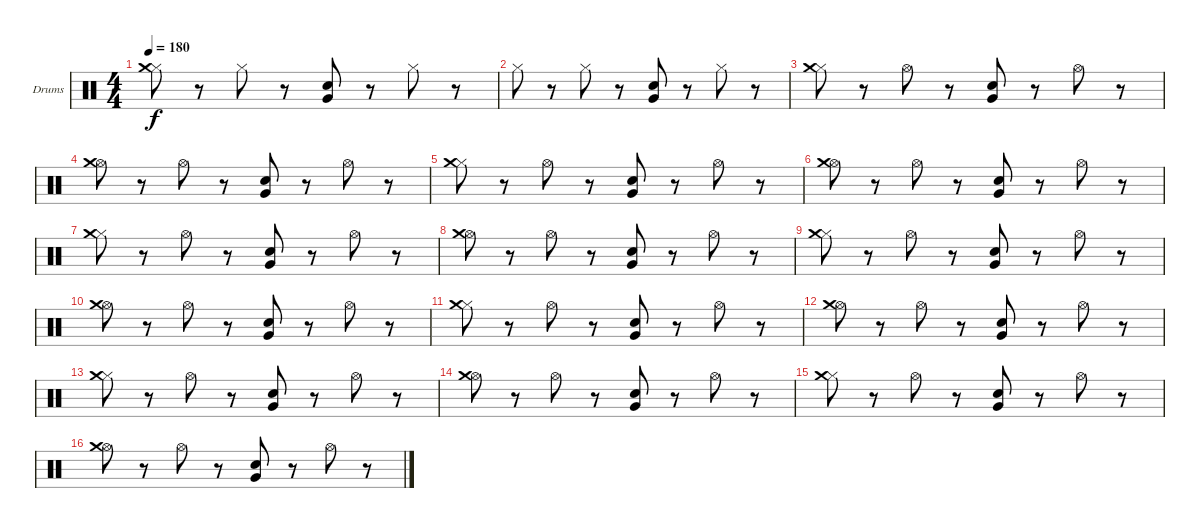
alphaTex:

\bracketExtendMode groupsimilarinstruments
\firstSystemTrackNameOrientation horizontal
\otherSystemsTrackNameOrientation horizontal
\track ("Drumkit" "Drums") {instrument percussion}
\staff {score}
\articulation defaults
\ts (4 4)
\tempo 180
\clef neutral
\ks c
("Hi-Hat (closed)" "Crash medium (hit)").8{dy f} r.8 "Hi-Hat (closed)".8 r.8 ("Snare (hit) 2" "Very Low Tom (hit)").8 r.8 "Hi-Hat (closed)".8 r.8 |
"Hi-Hat (closed)".8 r.8 "Hi-Hat (closed)".8 r.8 ("Snare (hit) 2" "Very Low Tom (hit)").8 r.8 "Hi-Hat (closed)".8 r.8 |
("Hi-Hat (closed)" "Crash medium (hit)").8 r.8 "Hi-Hat (open)".8 r.8 ("Snare (hit) 2" "Very Low Tom (hit)").8 r.8 "Hi-Hat (open)".8 r.8 |
("Hi-Hat (open)" "Crash medium (hit)").8 r.8 "Hi-Hat (open)".8 r.8 ("Snare (hit) 2" "Very Low Tom (hit)").8 r.8 "Hi-Hat (open)".8 r.8 |
("Hi-Hat (closed)" "Crash medium (hit)").8 r.8 "Hi-Hat (open)".8 r.8 ("Snare (hit) 2" "Very Low Tom (hit)").8 r.8 "Hi-Hat (open)".8 r.8 |
("Hi-Hat (open)" "Crash medium (hit)").8 r.8 "Hi-Hat (open)".8 r.8 ("Snare (hit) 2" "Very Low Tom (hit)").8 r.8 "Hi-Hat (open)".8 r.8 |
("Hi-Hat (closed)" "Crash medium (hit)").8 r.8 "Hi-Hat (open)".8 r.8 ("Snare (hit) 2" "Very Low Tom (hit)").8 r.8 "Hi-Hat (open)".8 r.8 |
("Hi-Hat (open)" "Crash medium (hit)").8 r.8 "Hi-Hat (open)".8 r.8 ("Snare (hit) 2" "Very Low Tom (hit)").8 r.8 "Hi-Hat (open)".8 r.8 |
("Hi-Hat (closed)" "Crash medium (hit)").8 r.8 "Hi-Hat (open)".8 r.8 ("Snare (hit) 2" "Very Low Tom (hit)").8 r.8 "Hi-Hat (open)".8 r.8 |
("Hi-Hat (open)" "Crash medium (hit)").8 r.8 "Hi-Hat (open)".8 r.8 ("Snare (hit) 2" "Very Low Tom (hit)").8 r.8 "Hi-Hat (open)".8 r.8 |
("Hi-Hat (closed)" "Crash medium (hit)").8 r.8 "Hi-Hat (open)".8 r.8 ("Snare (hit) 2" "Very Low Tom (hit)").8 r.8 "Hi-Hat (open)".8 r.8 |
("Hi-Hat (open)" "Crash medium (hit)").8 r.8 "Hi-Hat (open)".8 r.8 ("Snare (hit) 2" "Very Low Tom (hit)").8 r.8 "Hi-Hat (open)".8 r.8 |
("Hi-Hat (closed)" "Crash medium (hit)").8 r.8 "Hi-Hat (open)".8 r.8 ("Snare (hit) 2" "Very Low Tom (hit)").8 r.8 "Hi-Hat (open)".8 r.8 |
("Hi-Hat (open)" "Crash medium (hit)").8 r.8 "Hi-Hat (open)".8 r.8 ("Snare (hit) 2" "Very Low Tom (hit)").8 r.8 "Hi-Hat (open)".8 r.8 |
("Hi-Hat (closed)" "Crash medium (hit)").8 r.8 "Hi-Hat (open)".8 r.8 ("Snare (hit) 2" "Very Low Tom (hit)").8 r.8 "Hi-Hat (open)".8 r.8 |
("Hi-Hat (open)" "Crash medium (hit)").8 r.8 "Hi-Hat (open)".8 r.8 ("Snare (hit) 2" "Very Low Tom (hit)").8 r.8 "Hi-Hat (open)".8 r.8
